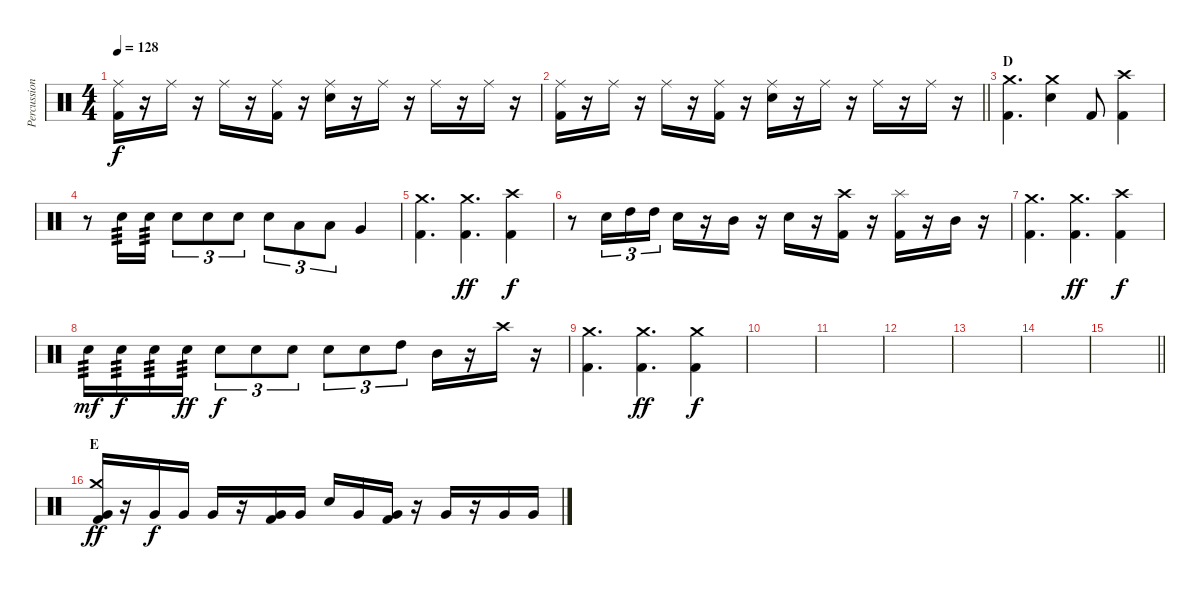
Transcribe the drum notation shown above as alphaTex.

\track ("Percussion" "Percussion") {instrument percussion}
\staff {score}
\articulation defaults
\ts (4 4)
\tempo 128
\clef neutral
\ks c
("Ride (middle)" "Kick (hit) 2").16{dy f} r.16 "Ride (middle)".16 r.16 "Ride (middle)".16 r.16 ("Ride (middle)" "Kick (hit) 2").16 r.16 ("Ride (middle)" "Snare (hit) 2").16 r.16 "Ride (middle)".16 r.16 "Ride (middle)".16 r.16 "Ride (middle)".16 r.16 |
\barLineRight lightlight
("Ride (middle)" "Kick (hit) 2").16 r.16 "Ride (middle)".16 r.16 "Ride (middle)".16 r.16 ("Ride (middle)" "Kick (hit) 2").16 r.16 ("Ride (middle)" "Snare (hit) 2").16 r.16 "Ride (middle)".16 r.16 "Ride (middle)".16 r.16 "Ride (middle)".16 r.16 |
\section ("" "D")
("Crash medium (hit)" "Kick (hit) 2").4{d} ("Crash medium (hit)" "Snare (hit) 2").4 "Kick (hit) 2".8 ("Crash high (hit)" "Kick (hit) 2").4 |
r.8 "Snare (hit) 2".16{tp 3} "Snare (hit) 2".16{tp 3} "Snare (hit) 2".8{tu (3 2)} "Snare (hit) 2".8{tu (3 2)} "Snare (hit) 2".8{tu (3 2)} "Snare (hit) 2".8{tu (3 2)} "Low Tom (hit)".8{tu (3 2)} "Low Tom (hit)".8{tu (3 2)} "Very Low Tom (hit)".4 |
("Crash medium (hit)" "Kick (hit) 2").4{d} ("Crash medium (hit)" "Kick (hit) 2").4{d dy ff} ("Crash high (hit)" "Kick (hit) 2").4{dy f} |
r.8 "Snare (hit) 2".16{tu (3 2)} "High Tom (hit)".16{tu (3 2)} "High Tom (hit)".16{tu (3 2)} "Snare (hit) 2".16 r.16 "Mid Tom (hit)".16 r.16 "Snare (hit) 2".16 r.16 ("Crash high (hit)" "Kick (hit) 2").16 r.16 ("Splash (hit)" "Kick (hit) 2").16 r.16 "Mid Tom (hit)".16 r.16 |
("Crash medium (hit)" "Kick (hit) 2").4{d} ("Crash medium (hit)" "Kick (hit) 2").4{d dy ff} ("Crash high (hit)" "Kick (hit) 2").4{dy f} |
"Snare (hit) 2".16{tp 3 dy mf} "Snare (hit) 2".16{tp 3 dy f} "Snare (hit) 2".16{tp 3} "Snare (hit) 2".16{tp 3 dy ff} "Snare (hit) 2".8{tu (3 2) dy f} "Snare (hit) 2".8{tu (3 2)} "Snare (hit) 2".8{tu (3 2)} "Snare (hit) 2".8{tu (3 2)} "Snare (hit) 2".8{tu (3 2)} "High Tom (hit)".8{tu (3 2)} "Mid Tom (hit)".16 r.16 "Crash high (hit)".16 r.16 |
("Crash medium (hit)" "Kick (hit) 2").4{d} ("Crash medium (hit)" "Kick (hit) 2").4{d dy ff} ("Crash medium (hit)" "Kick (hit) 2").4{dy f} |
|
|
|
|
|
\barLineRight lightlight
|
\section ("" "E")
("Crash medium (hit)" "Very Low Tom (hit)" "Kick (hit) 2").16{dy ff} r.16 "Very Low Tom (hit)".16{dy f} "Very Low Tom (hit)".16 "Very Low Tom (hit)".16 r.16 ("Very Low Tom (hit)" "Kick (hit) 2").16 "Very Low Tom (hit)".16 "Snare (hit) 2".16 "Very Low Tom (hit)".16 ("Very Low Tom (hit)" "Kick (hit) 2").16 r.16 "Very Low Tom (hit)".16 r.16 "Very Low Tom (hit)".16 "Very Low Tom (hit)".16
